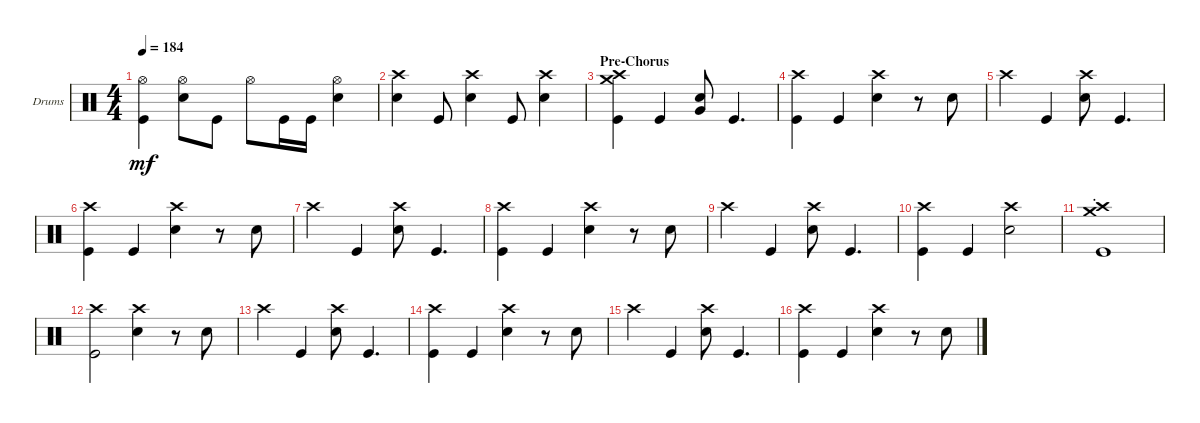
\defaultSystemsLayout 4
\bracketExtendMode groupsimilarinstruments
\firstSystemTrackNameOrientation horizontal
\otherSystemsTrackNameOrientation horizontal
\track ("Drums (Phoenix)" "Drums") {instrument percussion}
\staff {score}
\articulation defaults
\ts (4 4)
\tempo 184
\clef neutral
\ks c
("Kick (hit)" "Hi-Hat (open)").4{dy mf} ("Snare (hit) 2" "Hi-Hat (open)").8 "Kick (hit)".8 "Hi-Hat (open)".8 "Kick (hit)".16 "Kick (hit)".16 ("Snare (hit) 2" "Hi-Hat (open)").4 |
("Snare (hit) 2" "Crash high (hit)").4 "Kick (hit)".8 ("Snare (hit) 2" "Crash high (hit)").4 "Kick (hit)".8 ("Snare (hit) 2" "Crash high (hit)").4 |
\section ("" "Pre-Chorus")
("Kick (hit)" "Crash high (hit)" "Crash medium (hit)").4 "Kick (hit)".4 ("Snare (hit) 2" "Very Low Tom (hit)").8 "Kick (hit)".4{d} |
("Kick (hit)" "Crash high (hit)").4 "Kick (hit)".4 ("Snare (hit) 2" "Crash high (hit)").4 r.8 "Snare (hit) 2".8 |
"Crash high (hit)".4 "Kick (hit)".4 ("Snare (hit) 2" "Crash high (hit)").8 "Kick (hit)".4{d} |
("Kick (hit)" "Crash high (hit)").4 "Kick (hit)".4 ("Snare (hit) 2" "Crash high (hit)").4 r.8 "Snare (hit) 2".8 |
"Crash high (hit)".4 "Kick (hit)".4 ("Snare (hit) 2" "Crash high (hit)").8 "Kick (hit)".4{d} |
("Kick (hit)" "Crash high (hit)").4 "Kick (hit)".4 ("Snare (hit) 2" "Crash high (hit)").4 r.8 "Snare (hit) 2".8 |
"Crash high (hit)".4 "Kick (hit)".4 ("Snare (hit) 2" "Crash high (hit)").8 "Kick (hit)".4{d} |
("Kick (hit)" "Crash high (hit)").4 "Kick (hit)".4 ("Snare (hit) 2" "Crash high (hit)").2 |
("Kick (hit)" "Crash high (hit)"{st} "Crash medium (hit)"{st}).1 |
("Kick (hit)" "Crash high (hit)").2 ("Snare (hit) 2" "Crash high (hit)").4 r.8 "Snare (hit) 2".8 |
"Crash high (hit)".4 "Kick (hit)".4 ("Snare (hit) 2" "Crash high (hit)").8 "Kick (hit)".4{d} |
("Kick (hit)" "Crash high (hit)").4 "Kick (hit)".4 ("Snare (hit) 2" "Crash high (hit)").4 r.8 "Snare (hit) 2".8 |
"Crash high (hit)".4 "Kick (hit)".4 ("Snare (hit) 2" "Crash high (hit)").8 "Kick (hit)".4{d} |
("Kick (hit)" "Crash high (hit)").4 "Kick (hit)".4 ("Snare (hit) 2" "Crash high (hit)").4 r.8 "Snare (hit) 2".8
